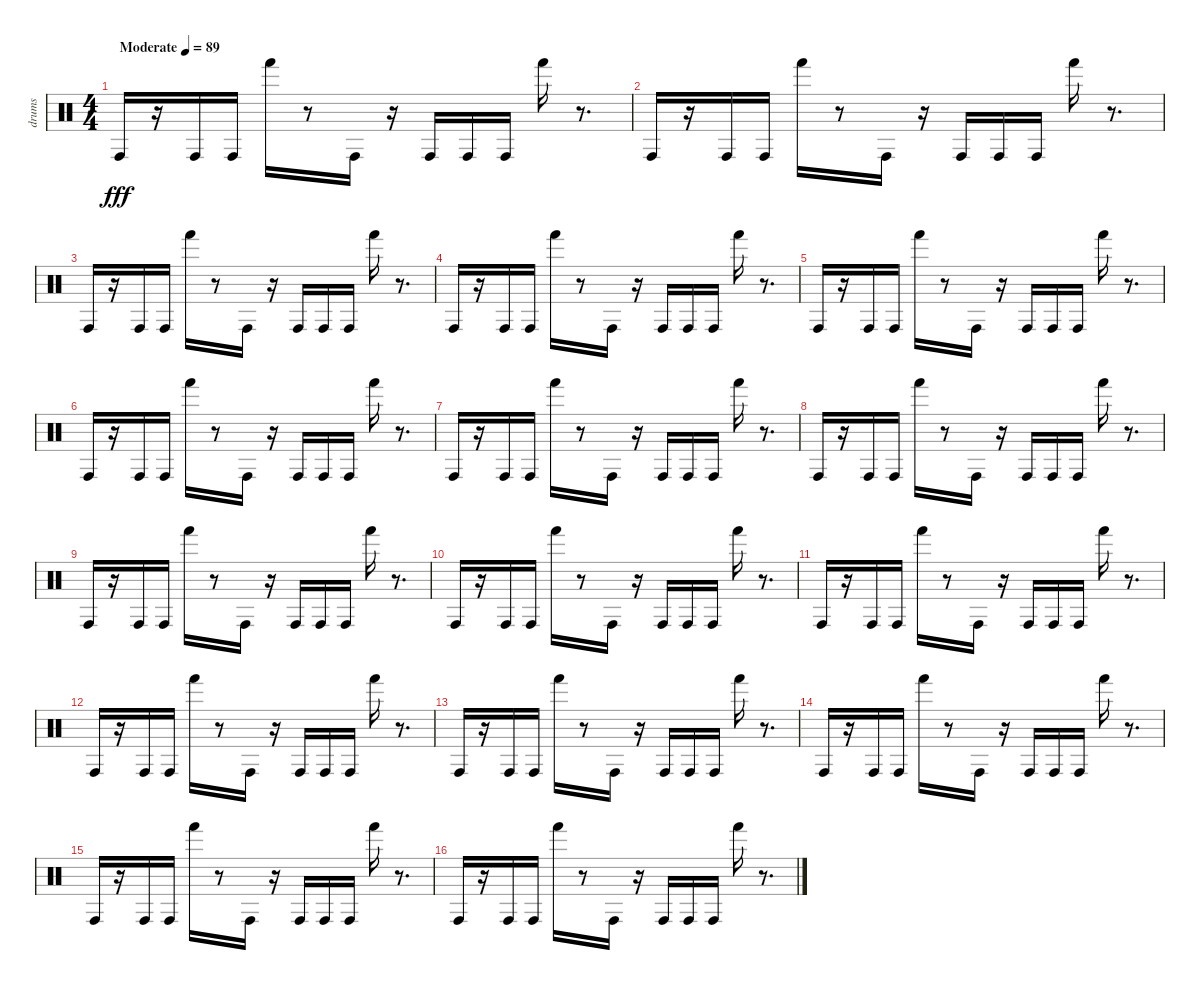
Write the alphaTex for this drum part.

\track ("drums" "drums") {instrument percussion}
\staff {score}
\articulation defaults
\ts (4 4)
\tempo (89 "Moderate")
\clef neutral
\ks c "Conga high (hit)".16{dy fff}
r.16 "Conga high (hit)".16 "Conga high (hit)".16 "Hand (hit)".16 r.8 "Conga high (hit)".16 r.16 "Conga high (hit)".16 "Conga high (hit)".16 "Conga high (hit)".16 "Hand (hit)".16 r.8{d} |
"Conga high (hit)".16 r.16 "Conga high (hit)".16 "Conga high (hit)".16 "Hand (hit)".16 r.8 "Conga high (hit)".16 r.16 "Conga high (hit)".16 "Conga high (hit)".16 "Conga high (hit)".16 "Hand (hit)".16 r.8{d} |
"Conga high (hit)".16 r.16 "Conga high (hit)".16 "Conga high (hit)".16 "Hand (hit)".16 r.8 "Conga high (hit)".16 r.16 "Conga high (hit)".16 "Conga high (hit)".16 "Conga high (hit)".16 "Hand (hit)".16 r.8{d} |
"Conga high (hit)".16 r.16 "Conga high (hit)".16 "Conga high (hit)".16 "Hand (hit)".16 r.8 "Conga high (hit)".16 r.16 "Conga high (hit)".16 "Conga high (hit)".16 "Conga high (hit)".16 "Hand (hit)".16 r.8{d} |
"Conga high (hit)".16 r.16 "Conga high (hit)".16 "Conga high (hit)".16 "Hand (hit)".16 r.8 "Conga high (hit)".16 r.16 "Conga high (hit)".16 "Conga high (hit)".16 "Conga high (hit)".16 "Hand (hit)".16 r.8{d} |
"Conga high (hit)".16 r.16 "Conga high (hit)".16 "Conga high (hit)".16 "Hand (hit)".16 r.8 "Conga high (hit)".16 r.16 "Conga high (hit)".16 "Conga high (hit)".16 "Conga high (hit)".16 "Hand (hit)".16 r.8{d} |
"Conga high (hit)".16 r.16 "Conga high (hit)".16 "Conga high (hit)".16 "Hand (hit)".16 r.8 "Conga high (hit)".16 r.16 "Conga high (hit)".16 "Conga high (hit)".16 "Conga high (hit)".16 "Hand (hit)".16 r.8{d} |
"Conga high (hit)".16 r.16 "Conga high (hit)".16 "Conga high (hit)".16 "Hand (hit)".16 r.8 "Conga high (hit)".16 r.16 "Conga high (hit)".16 "Conga high (hit)".16 "Conga high (hit)".16 "Hand (hit)".16 r.8{d} |
"Conga high (hit)".16 r.16 "Conga high (hit)".16 "Conga high (hit)".16 "Hand (hit)".16 r.8 "Conga high (hit)".16 r.16 "Conga high (hit)".16 "Conga high (hit)".16 "Conga high (hit)".16 "Hand (hit)".16 r.8{d} |
"Conga high (hit)".16 r.16 "Conga high (hit)".16 "Conga high (hit)".16 "Hand (hit)".16 r.8 "Conga high (hit)".16 r.16 "Conga high (hit)".16 "Conga high (hit)".16 "Conga high (hit)".16 "Hand (hit)".16 r.8{d} |
"Conga high (hit)".16 r.16 "Conga high (hit)".16 "Conga high (hit)".16 "Hand (hit)".16 r.8 "Conga high (hit)".16 r.16 "Conga high (hit)".16 "Conga high (hit)".16 "Conga high (hit)".16 "Hand (hit)".16 r.8{d} |
"Conga high (hit)".16 r.16 "Conga high (hit)".16 "Conga high (hit)".16 "Hand (hit)".16 r.8 "Conga high (hit)".16 r.16 "Conga high (hit)".16 "Conga high (hit)".16 "Conga high (hit)".16 "Hand (hit)".16 r.8{d} |
"Conga high (hit)".16 r.16 "Conga high (hit)".16 "Conga high (hit)".16 "Hand (hit)".16 r.8 "Conga high (hit)".16 r.16 "Conga high (hit)".16 "Conga high (hit)".16 "Conga high (hit)".16 "Hand (hit)".16 r.8{d} |
"Conga high (hit)".16 r.16 "Conga high (hit)".16 "Conga high (hit)".16 "Hand (hit)".16 r.8 "Conga high (hit)".16 r.16 "Conga high (hit)".16 "Conga high (hit)".16 "Conga high (hit)".16 "Hand (hit)".16 r.8{d} |
"Conga high (hit)".16 r.16 "Conga high (hit)".16 "Conga high (hit)".16 "Hand (hit)".16 r.8 "Conga high (hit)".16 r.16 "Conga high (hit)".16 "Conga high (hit)".16 "Conga high (hit)".16 "Hand (hit)".16 r.8{d} |
"Conga high (hit)".16 r.16 "Conga high (hit)".16 "Conga high (hit)".16 "Hand (hit)".16 r.8 "Conga high (hit)".16 r.16 "Conga high (hit)".16 "Conga high (hit)".16 "Conga high (hit)".16 "Hand (hit)".16 r.8{d}
